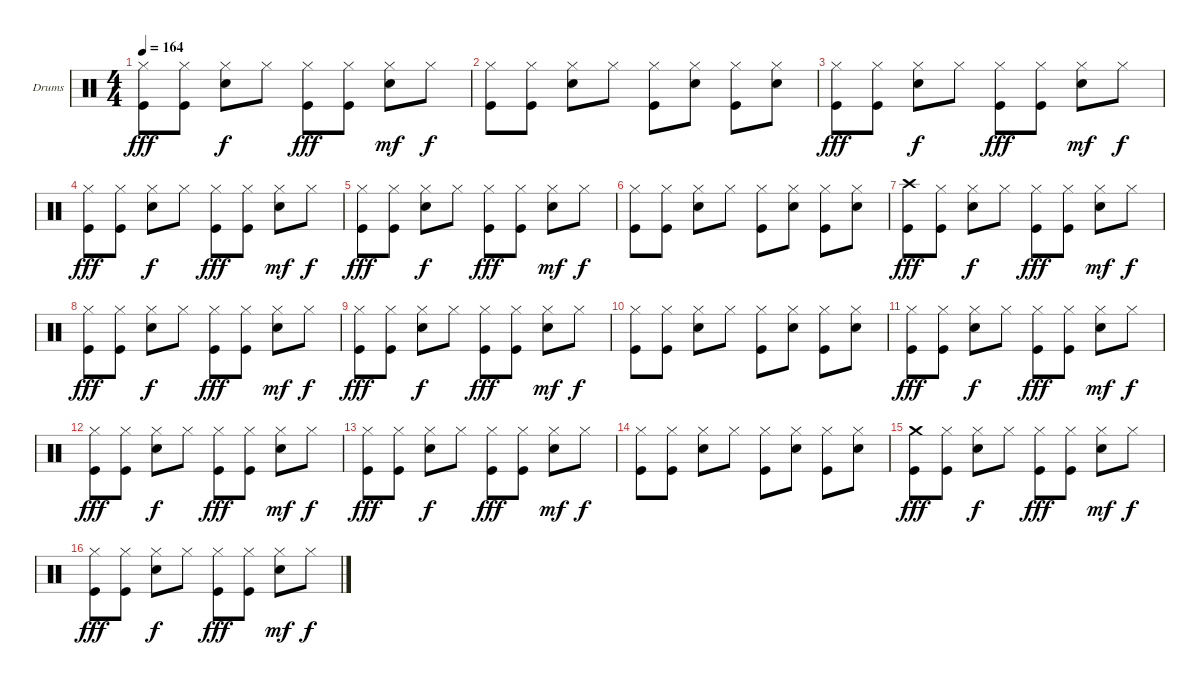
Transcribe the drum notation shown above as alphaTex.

\defaultSystemsLayout 4
\bracketExtendMode nobrackets
\firstSystemTrackNameOrientation horizontal
\otherSystemsTrackNameOrientation horizontal
\track ("Dave Abbruzzese" "Drums") {solo instrument percussion}
\staff {score}
\articulation defaults
\ts (4 4)
\tempo 164
\clef neutral
\ks c
("Kick (hit)" "Hi-Hat (closed)").8{dy fff} ("Kick (hit)" "Hi-Hat (closed)").8 ("Snare (hit) 2" "Hi-Hat (closed)").8{dy f} "Hi-Hat (closed)".8 ("Kick (hit)" "Hi-Hat (closed)").8{dy fff} ("Kick (hit)" "Hi-Hat (closed)").8 ("Snare (hit) 2" "Hi-Hat (closed)").8{dy mf} "Hi-Hat (closed)".8{dy f} |
("Kick (hit)" "Hi-Hat (closed)").8 ("Kick (hit)" "Hi-Hat (closed)").8 ("Snare (hit) 2" "Hi-Hat (closed)").8 "Hi-Hat (closed)".8 ("Kick (hit)" "Hi-Hat (closed)").8 ("Snare (hit) 2" "Hi-Hat (closed)").8 ("Kick (hit)" "Hi-Hat (closed)").8 ("Snare (hit) 2" "Hi-Hat (closed)").8 |
("Kick (hit)" "Hi-Hat (closed)").8{dy fff} ("Kick (hit)" "Hi-Hat (closed)").8 ("Snare (hit) 2" "Hi-Hat (closed)").8{dy f} "Hi-Hat (closed)".8 ("Kick (hit)" "Hi-Hat (closed)").8{dy fff} ("Kick (hit)" "Hi-Hat (closed)").8 ("Snare (hit) 2" "Hi-Hat (closed)").8{dy mf} "Hi-Hat (closed)".8{dy f} |
("Kick (hit)" "Hi-Hat (closed)").8{dy fff} ("Kick (hit)" "Hi-Hat (closed)").8 ("Snare (hit) 2" "Hi-Hat (closed)").8{dy f} "Hi-Hat (closed)".8 ("Kick (hit)" "Hi-Hat (closed)").8{dy fff} ("Kick (hit)" "Hi-Hat (closed)").8 ("Snare (hit) 2" "Hi-Hat (closed)").8{dy mf} "Hi-Hat (closed)".8{dy f} |
("Kick (hit)" "Hi-Hat (closed)").8{dy fff} ("Kick (hit)" "Hi-Hat (closed)").8 ("Snare (hit) 2" "Hi-Hat (closed)").8{dy f} "Hi-Hat (closed)".8 ("Kick (hit)" "Hi-Hat (closed)").8{dy fff} ("Kick (hit)" "Hi-Hat (closed)").8 ("Snare (hit) 2" "Hi-Hat (closed)").8{dy mf} "Hi-Hat (closed)".8{dy f} |
("Kick (hit)" "Hi-Hat (closed)").8 ("Kick (hit)" "Hi-Hat (closed)").8 ("Snare (hit) 2" "Hi-Hat (closed)").8 "Hi-Hat (closed)".8 ("Kick (hit)" "Hi-Hat (closed)").8 ("Snare (hit) 2" "Hi-Hat (closed)").8 ("Kick (hit)" "Hi-Hat (closed)").8 ("Snare (hit) 2" "Hi-Hat (closed)").8 |
("Kick (hit)" "Crash high (hit)").8{dy fff} ("Kick (hit)" "Hi-Hat (closed)").8 ("Snare (hit) 2" "Hi-Hat (closed)").8{dy f} "Hi-Hat (closed)".8 ("Kick (hit)" "Hi-Hat (closed)").8{dy fff} ("Kick (hit)" "Hi-Hat (closed)").8 ("Snare (hit) 2" "Hi-Hat (closed)").8{dy mf} "Hi-Hat (closed)".8{dy f} |
("Kick (hit)" "Hi-Hat (closed)").8{dy fff} ("Kick (hit)" "Hi-Hat (closed)").8 ("Snare (hit) 2" "Hi-Hat (closed)").8{dy f} "Hi-Hat (closed)".8 ("Kick (hit)" "Hi-Hat (closed)").8{dy fff} ("Kick (hit)" "Hi-Hat (closed)").8 ("Snare (hit) 2" "Hi-Hat (closed)").8{dy mf} "Hi-Hat (closed)".8{dy f} |
("Kick (hit)" "Hi-Hat (closed)").8{dy fff} ("Kick (hit)" "Hi-Hat (closed)").8 ("Snare (hit) 2" "Hi-Hat (closed)").8{dy f} "Hi-Hat (closed)".8 ("Kick (hit)" "Hi-Hat (closed)").8{dy fff} ("Kick (hit)" "Hi-Hat (closed)").8 ("Snare (hit) 2" "Hi-Hat (closed)").8{dy mf} "Hi-Hat (closed)".8{dy f} |
("Kick (hit)" "Hi-Hat (closed)").8 ("Kick (hit)" "Hi-Hat (closed)").8 ("Snare (hit) 2" "Hi-Hat (closed)").8 "Hi-Hat (closed)".8 ("Kick (hit)" "Hi-Hat (closed)").8 ("Snare (hit) 2" "Hi-Hat (closed)").8 ("Kick (hit)" "Hi-Hat (closed)").8 ("Snare (hit) 2" "Hi-Hat (closed)").8 |
("Kick (hit)" "Hi-Hat (closed)").8{dy fff} ("Kick (hit)" "Hi-Hat (closed)").8 ("Snare (hit) 2" "Hi-Hat (closed)").8{dy f} "Hi-Hat (closed)".8 ("Kick (hit)" "Hi-Hat (closed)").8{dy fff} ("Kick (hit)" "Hi-Hat (closed)").8 ("Snare (hit) 2" "Hi-Hat (closed)").8{dy mf} "Hi-Hat (closed)".8{dy f} |
("Kick (hit)" "Hi-Hat (closed)").8{dy fff} ("Kick (hit)" "Hi-Hat (closed)").8 ("Snare (hit) 2" "Hi-Hat (closed)").8{dy f} "Hi-Hat (closed)".8 ("Kick (hit)" "Hi-Hat (closed)").8{dy fff} ("Kick (hit)" "Hi-Hat (closed)").8 ("Snare (hit) 2" "Hi-Hat (closed)").8{dy mf} "Hi-Hat (closed)".8{dy f} |
("Kick (hit)" "Hi-Hat (closed)").8{dy fff} ("Kick (hit)" "Hi-Hat (closed)").8 ("Snare (hit) 2" "Hi-Hat (closed)").8{dy f} "Hi-Hat (closed)".8 ("Kick (hit)" "Hi-Hat (closed)").8{dy fff} ("Kick (hit)" "Hi-Hat (closed)").8 ("Snare (hit) 2" "Hi-Hat (closed)").8{dy mf} "Hi-Hat (closed)".8{dy f} |
("Kick (hit)" "Hi-Hat (closed)").8 ("Kick (hit)" "Hi-Hat (closed)").8 ("Snare (hit) 2" "Hi-Hat (closed)").8 "Hi-Hat (closed)".8 ("Kick (hit)" "Hi-Hat (closed)").8 ("Snare (hit) 2" "Hi-Hat (closed)").8 ("Kick (hit)" "Hi-Hat (closed)").8 ("Snare (hit) 2" "Hi-Hat (closed)").8 |
("Kick (hit)" "Crash medium (hit)").8{dy fff} ("Kick (hit)" "Hi-Hat (closed)").8 ("Snare (hit) 2" "Hi-Hat (closed)").8{dy f} "Hi-Hat (closed)".8 ("Kick (hit)" "Hi-Hat (closed)").8{dy fff} ("Kick (hit)" "Hi-Hat (closed)").8 ("Snare (hit) 2" "Hi-Hat (closed)").8{dy mf} "Hi-Hat (closed)".8{dy f} |
("Kick (hit)" "Hi-Hat (closed)").8{dy fff} ("Kick (hit)" "Hi-Hat (closed)").8 ("Snare (hit) 2" "Hi-Hat (closed)").8{dy f} "Hi-Hat (closed)".8 ("Kick (hit)" "Hi-Hat (closed)").8{dy fff} ("Kick (hit)" "Hi-Hat (closed)").8 ("Snare (hit) 2" "Hi-Hat (closed)").8{dy mf} "Hi-Hat (closed)".8{dy f}
